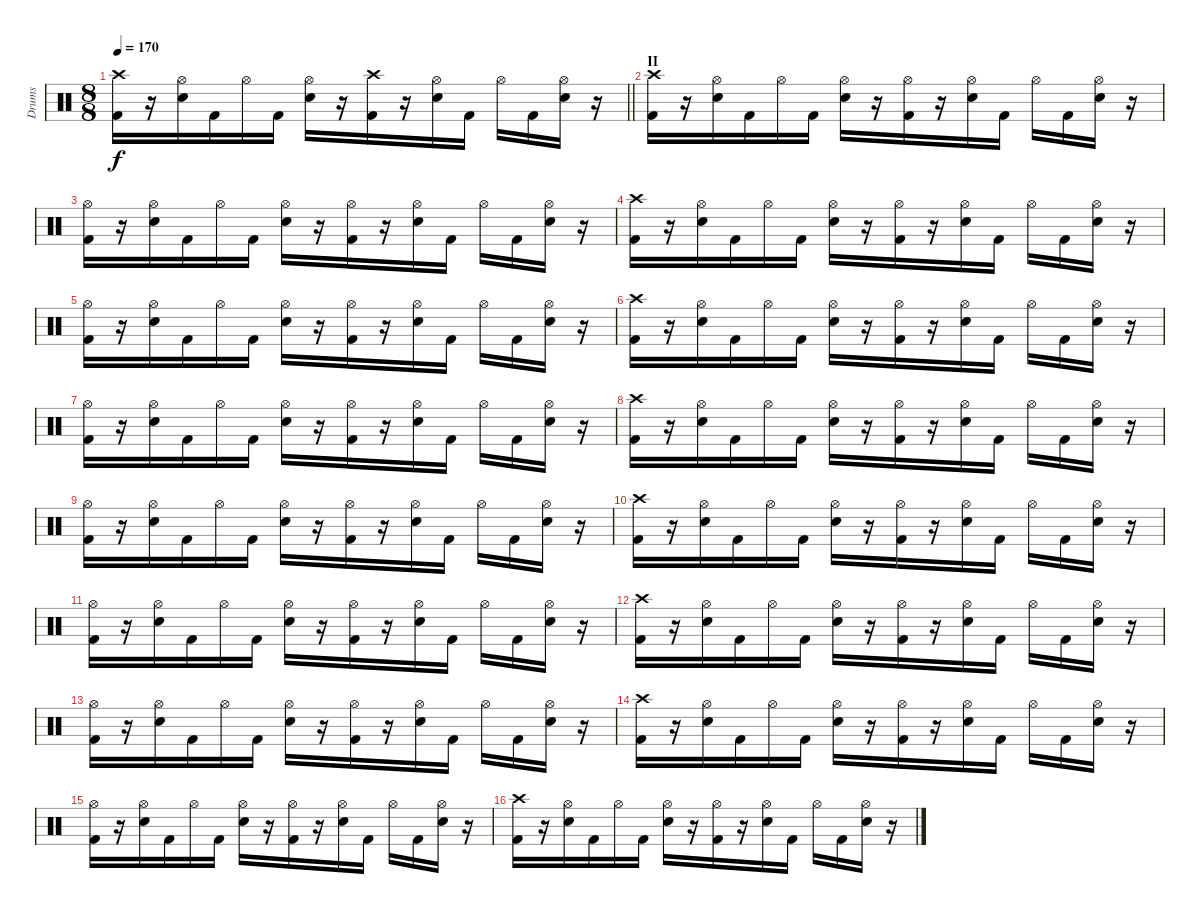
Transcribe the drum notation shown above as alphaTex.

\track ("Drums" "Drums") {mute instrument percussion}
\staff {score}
\articulation defaults
\ts (8 8)
\tempo 170
\clef neutral
\barLineRight lightlight
\ks c
("Crash high (hit)" "Kick (hit) 2").16{dy f} r.16 ("Hi-Hat (open)" "Snare (hit) 2").16 "Kick (hit) 2".16 "Hi-Hat (open)".16 "Kick (hit) 2".16 ("Hi-Hat (open)" "Snare (hit) 2").16 r.16 ("Crash high (hit)" "Kick (hit) 2").16 r.16 ("Hi-Hat (open)" "Snare (hit) 2").16 "Kick (hit) 2".16 "Hi-Hat (open)".16 "Kick (hit) 2".16 ("Hi-Hat (open)" "Snare (hit) 2").16 r.16 |
\section ("" "II")
("Crash high (hit)" "Kick (hit) 2").16 r.16 ("Hi-Hat (open)" "Snare (hit) 2").16 "Kick (hit) 2".16 "Hi-Hat (open)".16 "Kick (hit) 2".16 ("Hi-Hat (open)" "Snare (hit) 2").16 r.16 ("Hi-Hat (open)" "Kick (hit) 2").16 r.16 ("Hi-Hat (open)" "Snare (hit) 2").16 "Kick (hit) 2".16 "Hi-Hat (open)".16 "Kick (hit) 2".16 ("Hi-Hat (open)" "Snare (hit) 2").16 r.16 |
("Hi-Hat (open)" "Kick (hit) 2").16 r.16 ("Hi-Hat (open)" "Snare (hit) 2").16 "Kick (hit) 2".16 "Hi-Hat (open)".16 "Kick (hit) 2".16 ("Hi-Hat (open)" "Snare (hit) 2").16 r.16 ("Hi-Hat (open)" "Kick (hit) 2").16 r.16 ("Hi-Hat (open)" "Snare (hit) 2").16 "Kick (hit) 2".16 "Hi-Hat (open)".16 "Kick (hit) 2".16 ("Hi-Hat (open)" "Snare (hit) 2").16 r.16 |
("Crash high (hit)" "Kick (hit) 2").16 r.16 ("Hi-Hat (open)" "Snare (hit) 2").16 "Kick (hit) 2".16 "Hi-Hat (open)".16 "Kick (hit) 2".16 ("Hi-Hat (open)" "Snare (hit) 2").16 r.16 ("Hi-Hat (open)" "Kick (hit) 2").16 r.16 ("Hi-Hat (open)" "Snare (hit) 2").16 "Kick (hit) 2".16 "Hi-Hat (open)".16 "Kick (hit) 2".16 ("Hi-Hat (open)" "Snare (hit) 2").16 r.16 |
("Hi-Hat (open)" "Kick (hit) 2").16 r.16 ("Hi-Hat (open)" "Snare (hit) 2").16 "Kick (hit) 2".16 "Hi-Hat (open)".16 "Kick (hit) 2".16 ("Hi-Hat (open)" "Snare (hit) 2").16 r.16 ("Hi-Hat (open)" "Kick (hit) 2").16 r.16 ("Hi-Hat (open)" "Snare (hit) 2").16 "Kick (hit) 2".16 "Hi-Hat (open)".16 "Kick (hit) 2".16 ("Hi-Hat (open)" "Snare (hit) 2").16 r.16 |
("Crash high (hit)" "Kick (hit) 2").16 r.16 ("Hi-Hat (open)" "Snare (hit) 2").16 "Kick (hit) 2".16 "Hi-Hat (open)".16 "Kick (hit) 2".16 ("Hi-Hat (open)" "Snare (hit) 2").16 r.16 ("Hi-Hat (open)" "Kick (hit) 2").16 r.16 ("Hi-Hat (open)" "Snare (hit) 2").16 "Kick (hit) 2".16 "Hi-Hat (open)".16 "Kick (hit) 2".16 ("Hi-Hat (open)" "Snare (hit) 2").16 r.16 |
("Hi-Hat (open)" "Kick (hit) 2").16 r.16 ("Hi-Hat (open)" "Snare (hit) 2").16 "Kick (hit) 2".16 "Hi-Hat (open)".16 "Kick (hit) 2".16 ("Hi-Hat (open)" "Snare (hit) 2").16 r.16 ("Hi-Hat (open)" "Kick (hit) 2").16 r.16 ("Hi-Hat (open)" "Snare (hit) 2").16 "Kick (hit) 2".16 "Hi-Hat (open)".16 "Kick (hit) 2".16 ("Hi-Hat (open)" "Snare (hit) 2").16 r.16 |
("Crash high (hit)" "Kick (hit) 2").16 r.16 ("Hi-Hat (open)" "Snare (hit) 2").16 "Kick (hit) 2".16 "Hi-Hat (open)".16 "Kick (hit) 2".16 ("Hi-Hat (open)" "Snare (hit) 2").16 r.16 ("Hi-Hat (open)" "Kick (hit) 2").16 r.16 ("Hi-Hat (open)" "Snare (hit) 2").16 "Kick (hit) 2".16 "Hi-Hat (open)".16 "Kick (hit) 2".16 ("Hi-Hat (open)" "Snare (hit) 2").16 r.16 |
("Hi-Hat (open)" "Kick (hit) 2").16 r.16 ("Hi-Hat (open)" "Snare (hit) 2").16 "Kick (hit) 2".16 "Hi-Hat (open)".16 "Kick (hit) 2".16 ("Hi-Hat (open)" "Snare (hit) 2").16 r.16 ("Hi-Hat (open)" "Kick (hit) 2").16 r.16 ("Hi-Hat (open)" "Snare (hit) 2").16 "Kick (hit) 2".16 "Hi-Hat (open)".16 "Kick (hit) 2".16 ("Hi-Hat (open)" "Snare (hit) 2").16 r.16 |
("Crash high (hit)" "Kick (hit) 2").16 r.16 ("Hi-Hat (open)" "Snare (hit) 2").16 "Kick (hit) 2".16 "Hi-Hat (open)".16 "Kick (hit) 2".16 ("Hi-Hat (open)" "Snare (hit) 2").16 r.16 ("Hi-Hat (open)" "Kick (hit) 2").16 r.16 ("Hi-Hat (open)" "Snare (hit) 2").16 "Kick (hit) 2".16 "Hi-Hat (open)".16 "Kick (hit) 2".16 ("Hi-Hat (open)" "Snare (hit) 2").16 r.16 |
("Hi-Hat (open)" "Kick (hit) 2").16 r.16 ("Hi-Hat (open)" "Snare (hit) 2").16 "Kick (hit) 2".16 "Hi-Hat (open)".16 "Kick (hit) 2".16 ("Hi-Hat (open)" "Snare (hit) 2").16 r.16 ("Hi-Hat (open)" "Kick (hit) 2").16 r.16 ("Hi-Hat (open)" "Snare (hit) 2").16 "Kick (hit) 2".16 "Hi-Hat (open)".16 "Kick (hit) 2".16 ("Hi-Hat (open)" "Snare (hit) 2").16 r.16 |
("Crash high (hit)" "Kick (hit) 2").16 r.16 ("Hi-Hat (open)" "Snare (hit) 2").16 "Kick (hit) 2".16 "Hi-Hat (open)".16 "Kick (hit) 2".16 ("Hi-Hat (open)" "Snare (hit) 2").16 r.16 ("Hi-Hat (open)" "Kick (hit) 2").16 r.16 ("Hi-Hat (open)" "Snare (hit) 2").16 "Kick (hit) 2".16 "Hi-Hat (open)".16 "Kick (hit) 2".16 ("Hi-Hat (open)" "Snare (hit) 2").16 r.16 |
("Hi-Hat (open)" "Kick (hit) 2").16 r.16 ("Hi-Hat (open)" "Snare (hit) 2").16 "Kick (hit) 2".16 "Hi-Hat (open)".16 "Kick (hit) 2".16 ("Hi-Hat (open)" "Snare (hit) 2").16 r.16 ("Hi-Hat (open)" "Kick (hit) 2").16 r.16 ("Hi-Hat (open)" "Snare (hit) 2").16 "Kick (hit) 2".16 "Hi-Hat (open)".16 "Kick (hit) 2".16 ("Hi-Hat (open)" "Snare (hit) 2").16 r.16 |
("Crash high (hit)" "Kick (hit) 2").16 r.16 ("Hi-Hat (open)" "Snare (hit) 2").16 "Kick (hit) 2".16 "Hi-Hat (open)".16 "Kick (hit) 2".16 ("Hi-Hat (open)" "Snare (hit) 2").16 r.16 ("Hi-Hat (open)" "Kick (hit) 2").16 r.16 ("Hi-Hat (open)" "Snare (hit) 2").16 "Kick (hit) 2".16 "Hi-Hat (open)".16 "Kick (hit) 2".16 ("Hi-Hat (open)" "Snare (hit) 2").16 r.16 |
("Hi-Hat (open)" "Kick (hit) 2").16 r.16 ("Hi-Hat (open)" "Snare (hit) 2").16 "Kick (hit) 2".16 "Hi-Hat (open)".16 "Kick (hit) 2".16 ("Hi-Hat (open)" "Snare (hit) 2").16 r.16 ("Hi-Hat (open)" "Kick (hit) 2").16 r.16 ("Hi-Hat (open)" "Snare (hit) 2").16 "Kick (hit) 2".16 "Hi-Hat (open)".16 "Kick (hit) 2".16 ("Hi-Hat (open)" "Snare (hit) 2").16 r.16 |
("Crash high (hit)" "Kick (hit) 2").16 r.16 ("Hi-Hat (open)" "Snare (hit) 2").16 "Kick (hit) 2".16 "Hi-Hat (open)".16 "Kick (hit) 2".16 ("Hi-Hat (open)" "Snare (hit) 2").16 r.16 ("Hi-Hat (open)" "Kick (hit) 2").16 r.16 ("Hi-Hat (open)" "Snare (hit) 2").16 "Kick (hit) 2".16 "Hi-Hat (open)".16 "Kick (hit) 2".16 ("Hi-Hat (open)" "Snare (hit) 2").16 r.16
